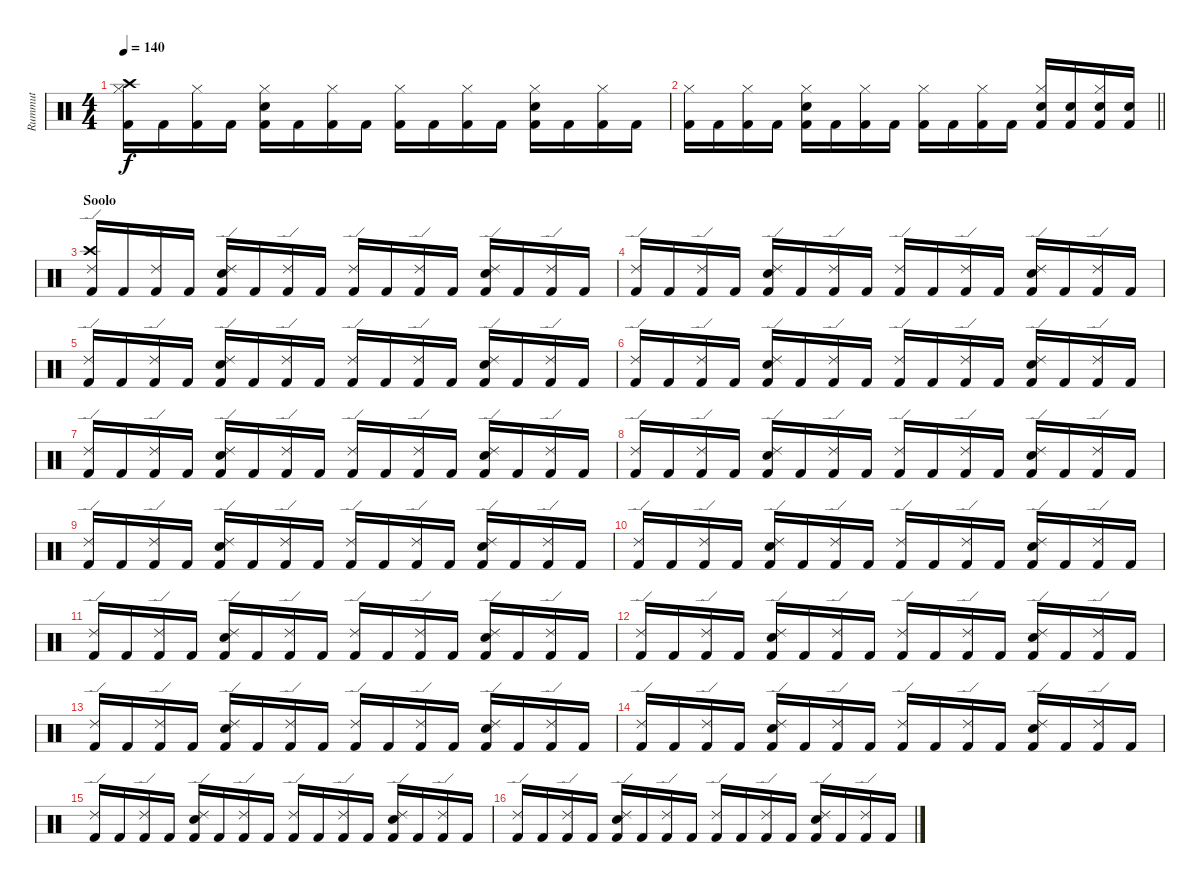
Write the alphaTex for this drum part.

\track ("Rummut" "Rummut") {instrument percussion}
\staff {score}
\articulation defaults
\ts (4 4)
\tempo 140
\clef neutral
\ks c
("Kick (hit) 2" "Hi-Hat (closed)" "Crash high (hit)").16{dy f} "Kick (hit) 2".16 ("Kick (hit) 2" "Hi-Hat (closed)").16 "Kick (hit) 2".16 ("Kick (hit) 2" "Snare (hit) 2" "Hi-Hat (closed)").16 "Kick (hit) 2".16 ("Kick (hit) 2" "Hi-Hat (closed)").16 "Kick (hit) 2".16 ("Kick (hit) 2" "Hi-Hat (closed)").16 "Kick (hit) 2".16 ("Kick (hit) 2" "Hi-Hat (closed)").16 "Kick (hit) 2".16 ("Kick (hit) 2" "Snare (hit) 2" "Hi-Hat (closed)").16 "Kick (hit) 2".16 ("Kick (hit) 2" "Hi-Hat (closed)").16 "Kick (hit) 2".16 |
\barLineRight lightlight
("Kick (hit) 2" "Hi-Hat (closed)").16 "Kick (hit) 2".16 ("Kick (hit) 2" "Hi-Hat (closed)").16 "Kick (hit) 2".16 ("Kick (hit) 2" "Snare (hit) 2" "Hi-Hat (closed)").16 "Kick (hit) 2".16 ("Kick (hit) 2" "Hi-Hat (closed)").16 "Kick (hit) 2".16 ("Kick (hit) 2" "Hi-Hat (closed)").16 "Kick (hit) 2".16 ("Kick (hit) 2" "Hi-Hat (closed)").16 "Kick (hit) 2".16 ("Kick (hit) 2" "Snare (hit) 2" "Hi-Hat (closed)").16 ("Kick (hit) 2" "Snare (hit) 2").16 ("Kick (hit) 2" "Snare (hit) 2" "Hi-Hat (closed)").16 ("Kick (hit) 2" "Snare (hit) 2").16 |
\section ("" "Soolo")
("Kick (hit) 2" "Crash high (hit)" "Ride (edge) 2").16 "Kick (hit) 2".16 ("Kick (hit) 2" "Ride (edge) 2").16 "Kick (hit) 2".16 ("Kick (hit) 2" "Snare (hit) 2" "Ride (edge) 2").16 "Kick (hit) 2".16 ("Kick (hit) 2" "Ride (edge) 2").16 "Kick (hit) 2".16 ("Kick (hit) 2" "Ride (edge) 2").16 "Kick (hit) 2".16 ("Kick (hit) 2" "Ride (edge) 2").16 "Kick (hit) 2".16 ("Kick (hit) 2" "Snare (hit) 2" "Ride (edge) 2").16 "Kick (hit) 2".16 ("Kick (hit) 2" "Ride (edge) 2").16 "Kick (hit) 2".16 |
("Kick (hit) 2" "Ride (edge) 2").16 "Kick (hit) 2".16 ("Kick (hit) 2" "Ride (edge) 2").16 "Kick (hit) 2".16 ("Kick (hit) 2" "Snare (hit) 2" "Ride (edge) 2").16 "Kick (hit) 2".16 ("Kick (hit) 2" "Ride (edge) 2").16 "Kick (hit) 2".16 ("Kick (hit) 2" "Ride (edge) 2").16 "Kick (hit) 2".16 ("Kick (hit) 2" "Ride (edge) 2").16 "Kick (hit) 2".16 ("Kick (hit) 2" "Snare (hit) 2" "Ride (edge) 2").16 "Kick (hit) 2".16 ("Kick (hit) 2" "Ride (edge) 2").16 "Kick (hit) 2".16 |
("Kick (hit) 2" "Ride (edge) 2").16 "Kick (hit) 2".16 ("Kick (hit) 2" "Ride (edge) 2").16 "Kick (hit) 2".16 ("Kick (hit) 2" "Snare (hit) 2" "Ride (edge) 2").16 "Kick (hit) 2".16 ("Kick (hit) 2" "Ride (edge) 2").16 "Kick (hit) 2".16 ("Kick (hit) 2" "Ride (edge) 2").16 "Kick (hit) 2".16 ("Kick (hit) 2" "Ride (edge) 2").16 "Kick (hit) 2".16 ("Kick (hit) 2" "Snare (hit) 2" "Ride (edge) 2").16 "Kick (hit) 2".16 ("Kick (hit) 2" "Ride (edge) 2").16 "Kick (hit) 2".16 |
("Kick (hit) 2" "Ride (edge) 2").16 "Kick (hit) 2".16 ("Kick (hit) 2" "Ride (edge) 2").16 "Kick (hit) 2".16 ("Kick (hit) 2" "Snare (hit) 2" "Ride (edge) 2").16 "Kick (hit) 2".16 ("Kick (hit) 2" "Ride (edge) 2").16 "Kick (hit) 2".16 ("Kick (hit) 2" "Ride (edge) 2").16 "Kick (hit) 2".16 ("Kick (hit) 2" "Ride (edge) 2").16 "Kick (hit) 2".16 ("Kick (hit) 2" "Snare (hit) 2" "Ride (edge) 2").16 "Kick (hit) 2".16 ("Kick (hit) 2" "Ride (edge) 2").16 "Kick (hit) 2".16 |
("Kick (hit) 2" "Ride (edge) 2").16 "Kick (hit) 2".16 ("Kick (hit) 2" "Ride (edge) 2").16 "Kick (hit) 2".16 ("Kick (hit) 2" "Snare (hit) 2" "Ride (edge) 2").16 "Kick (hit) 2".16 ("Kick (hit) 2" "Ride (edge) 2").16 "Kick (hit) 2".16 ("Kick (hit) 2" "Ride (edge) 2").16 "Kick (hit) 2".16 ("Kick (hit) 2" "Ride (edge) 2").16 "Kick (hit) 2".16 ("Kick (hit) 2" "Snare (hit) 2" "Ride (edge) 2").16 "Kick (hit) 2".16 ("Kick (hit) 2" "Ride (edge) 2").16 "Kick (hit) 2".16 |
("Kick (hit) 2" "Ride (edge) 2").16 "Kick (hit) 2".16 ("Kick (hit) 2" "Ride (edge) 2").16 "Kick (hit) 2".16 ("Kick (hit) 2" "Snare (hit) 2" "Ride (edge) 2").16 "Kick (hit) 2".16 ("Kick (hit) 2" "Ride (edge) 2").16 "Kick (hit) 2".16 ("Kick (hit) 2" "Ride (edge) 2").16 "Kick (hit) 2".16 ("Kick (hit) 2" "Ride (edge) 2").16 "Kick (hit) 2".16 ("Kick (hit) 2" "Snare (hit) 2" "Ride (edge) 2").16 "Kick (hit) 2".16 ("Kick (hit) 2" "Ride (edge) 2").16 "Kick (hit) 2".16 |
("Kick (hit) 2" "Ride (edge) 2").16 "Kick (hit) 2".16 ("Kick (hit) 2" "Ride (edge) 2").16 "Kick (hit) 2".16 ("Kick (hit) 2" "Snare (hit) 2" "Ride (edge) 2").16 "Kick (hit) 2".16 ("Kick (hit) 2" "Ride (edge) 2").16 "Kick (hit) 2".16 ("Kick (hit) 2" "Ride (edge) 2").16 "Kick (hit) 2".16 ("Kick (hit) 2" "Ride (edge) 2").16 "Kick (hit) 2".16 ("Kick (hit) 2" "Snare (hit) 2" "Ride (edge) 2").16 "Kick (hit) 2".16 ("Kick (hit) 2" "Ride (edge) 2").16 "Kick (hit) 2".16 |
("Kick (hit) 2" "Ride (edge) 2").16 "Kick (hit) 2".16 ("Kick (hit) 2" "Ride (edge) 2").16 "Kick (hit) 2".16 ("Kick (hit) 2" "Snare (hit) 2" "Ride (edge) 2").16 "Kick (hit) 2".16 ("Kick (hit) 2" "Ride (edge) 2").16 "Kick (hit) 2".16 ("Kick (hit) 2" "Ride (edge) 2").16 "Kick (hit) 2".16 ("Kick (hit) 2" "Ride (edge) 2").16 "Kick (hit) 2".16 ("Kick (hit) 2" "Snare (hit) 2" "Ride (edge) 2").16 "Kick (hit) 2".16 ("Kick (hit) 2" "Ride (edge) 2").16 "Kick (hit) 2".16 |
("Kick (hit) 2" "Ride (edge) 2").16 "Kick (hit) 2".16 ("Kick (hit) 2" "Ride (edge) 2").16 "Kick (hit) 2".16 ("Kick (hit) 2" "Snare (hit) 2" "Ride (edge) 2").16 "Kick (hit) 2".16 ("Kick (hit) 2" "Ride (edge) 2").16 "Kick (hit) 2".16 ("Kick (hit) 2" "Ride (edge) 2").16 "Kick (hit) 2".16 ("Kick (hit) 2" "Ride (edge) 2").16 "Kick (hit) 2".16 ("Kick (hit) 2" "Snare (hit) 2" "Ride (edge) 2").16 "Kick (hit) 2".16 ("Kick (hit) 2" "Ride (edge) 2").16 "Kick (hit) 2".16 |
("Kick (hit) 2" "Ride (edge) 2").16 "Kick (hit) 2".16 ("Kick (hit) 2" "Ride (edge) 2").16 "Kick (hit) 2".16 ("Kick (hit) 2" "Snare (hit) 2" "Ride (edge) 2").16 "Kick (hit) 2".16 ("Kick (hit) 2" "Ride (edge) 2").16 "Kick (hit) 2".16 ("Kick (hit) 2" "Ride (edge) 2").16 "Kick (hit) 2".16 ("Kick (hit) 2" "Ride (edge) 2").16 "Kick (hit) 2".16 ("Kick (hit) 2" "Snare (hit) 2" "Ride (edge) 2").16 "Kick (hit) 2".16 ("Kick (hit) 2" "Ride (edge) 2").16 "Kick (hit) 2".16 |
("Kick (hit) 2" "Ride (edge) 2").16 "Kick (hit) 2".16 ("Kick (hit) 2" "Ride (edge) 2").16 "Kick (hit) 2".16 ("Kick (hit) 2" "Snare (hit) 2" "Ride (edge) 2").16 "Kick (hit) 2".16 ("Kick (hit) 2" "Ride (edge) 2").16 "Kick (hit) 2".16 ("Kick (hit) 2" "Ride (edge) 2").16 "Kick (hit) 2".16 ("Kick (hit) 2" "Ride (edge) 2").16 "Kick (hit) 2".16 ("Kick (hit) 2" "Snare (hit) 2" "Ride (edge) 2").16 "Kick (hit) 2".16 ("Kick (hit) 2" "Ride (edge) 2").16 "Kick (hit) 2".16 |
("Kick (hit) 2" "Ride (edge) 2").16 "Kick (hit) 2".16 ("Kick (hit) 2" "Ride (edge) 2").16 "Kick (hit) 2".16 ("Kick (hit) 2" "Snare (hit) 2" "Ride (edge) 2").16 "Kick (hit) 2".16 ("Kick (hit) 2" "Ride (edge) 2").16 "Kick (hit) 2".16 ("Kick (hit) 2" "Ride (edge) 2").16 "Kick (hit) 2".16 ("Kick (hit) 2" "Ride (edge) 2").16 "Kick (hit) 2".16 ("Kick (hit) 2" "Snare (hit) 2" "Ride (edge) 2").16 "Kick (hit) 2".16 ("Kick (hit) 2" "Ride (edge) 2").16 "Kick (hit) 2".16 |
("Kick (hit) 2" "Ride (edge) 2").16 "Kick (hit) 2".16 ("Kick (hit) 2" "Ride (edge) 2").16 "Kick (hit) 2".16 ("Kick (hit) 2" "Snare (hit) 2" "Ride (edge) 2").16 "Kick (hit) 2".16 ("Kick (hit) 2" "Ride (edge) 2").16 "Kick (hit) 2".16 ("Kick (hit) 2" "Ride (edge) 2").16 "Kick (hit) 2".16 ("Kick (hit) 2" "Ride (edge) 2").16 "Kick (hit) 2".16 ("Kick (hit) 2" "Snare (hit) 2" "Ride (edge) 2").16 "Kick (hit) 2".16 ("Kick (hit) 2" "Ride (edge) 2").16 "Kick (hit) 2".16 |
("Kick (hit) 2" "Ride (edge) 2").16 "Kick (hit) 2".16 ("Kick (hit) 2" "Ride (edge) 2").16 "Kick (hit) 2".16 ("Kick (hit) 2" "Snare (hit) 2" "Ride (edge) 2").16 "Kick (hit) 2".16 ("Kick (hit) 2" "Ride (edge) 2").16 "Kick (hit) 2".16 ("Kick (hit) 2" "Ride (edge) 2").16 "Kick (hit) 2".16 ("Kick (hit) 2" "Ride (edge) 2").16 "Kick (hit) 2".16 ("Kick (hit) 2" "Snare (hit) 2" "Ride (edge) 2").16 "Kick (hit) 2".16 ("Kick (hit) 2" "Ride (edge) 2").16 "Kick (hit) 2".16
